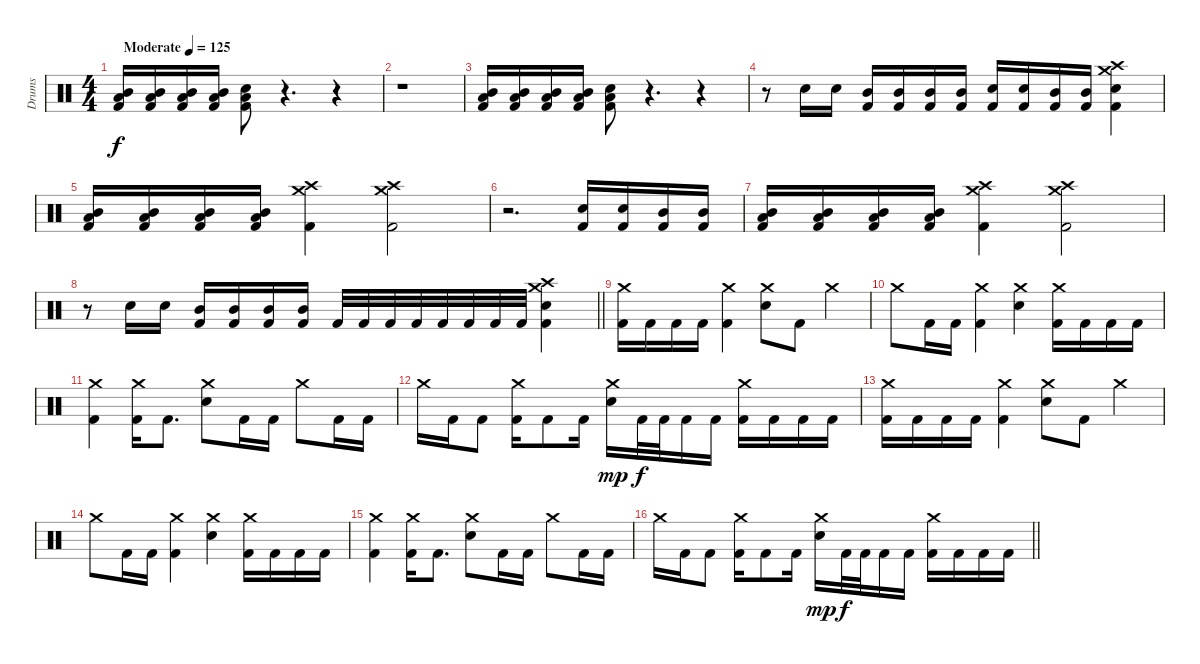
\track ("Drums" "Drums") {instrument percussion}
\staff {score}
\articulation defaults
\ts (4 4)
\section ("" "")
\tempo (125 "Moderate")
\clef neutral
\ks c
("Mid Tom (hit)" "Low Tom (hit)" "Kick (hit) 2").16{dy f} ("Mid Tom (hit)" "Low Tom (hit)" "Kick (hit) 2").16 ("Mid Tom (hit)" "Low Tom (hit)" "Kick (hit) 2").16 ("Mid Tom (hit)" "Low Tom (hit)" "Kick (hit) 2").16 ("Low Tom (hit)" "Snare (hit) 2" "Kick (hit) 2").8 r.4{d} r.4 |
r.1 |
("Mid Tom (hit)" "Low Tom (hit)" "Kick (hit) 2").16 ("Mid Tom (hit)" "Low Tom (hit)" "Kick (hit) 2").16 ("Mid Tom (hit)" "Low Tom (hit)" "Kick (hit) 2").16 ("Mid Tom (hit)" "Low Tom (hit)" "Kick (hit) 2").16 ("Low Tom (hit)" "Snare (hit) 2" "Kick (hit) 2").8 r.4{d} r.4 |
r.8 "Snare (hit) 2".16 "Snare (hit) 2".16 ("Mid Tom (hit)" "Kick (hit) 2").16 ("Mid Tom (hit)" "Kick (hit) 2").16 ("Mid Tom (hit)" "Kick (hit) 2").16 ("Mid Tom (hit)" "Kick (hit) 2").16 ("Snare (hit) 2" "Kick (hit) 2").16 ("Snare (hit) 2" "Kick (hit) 2").16 ("Mid Tom (hit)" "Kick (hit) 2").16 ("Mid Tom (hit)" "Kick (hit) 2").16 ("Crash medium (hit)" "Crash high (hit)" "Snare (hit) 2" "Kick (hit) 2").4 |
("Mid Tom (hit)" "Low Tom (hit)" "Kick (hit) 2").16 ("Mid Tom (hit)" "Low Tom (hit)" "Kick (hit) 2").16 ("Mid Tom (hit)" "Low Tom (hit)" "Kick (hit) 2").16 ("Mid Tom (hit)" "Low Tom (hit)" "Kick (hit) 2").16 ("Crash medium (hit)" "Crash high (hit)" "Kick (hit) 2").4 ("Crash medium (hit)" "Crash high (hit)" "Kick (hit) 2").2 |
r.2{d} ("Snare (hit) 2" "Kick (hit) 2").16 ("Snare (hit) 2" "Kick (hit) 2").16 ("Mid Tom (hit)" "Kick (hit) 2").16 ("Mid Tom (hit)" "Kick (hit) 2").16 |
("Mid Tom (hit)" "Low Tom (hit)" "Kick (hit) 2").16 ("Mid Tom (hit)" "Low Tom (hit)" "Kick (hit) 2").16 ("Mid Tom (hit)" "Low Tom (hit)" "Kick (hit) 2").16 ("Mid Tom (hit)" "Low Tom (hit)" "Kick (hit) 2").16 ("Crash medium (hit)" "Crash high (hit)" "Kick (hit) 2").4 ("Crash medium (hit)" "Crash high (hit)" "Kick (hit) 2").2 |
\barLineRight lightlight
r.8 "Snare (hit) 2".16 "Snare (hit) 2".16 ("Mid Tom (hit)" "Kick (hit) 2").16 ("Mid Tom (hit)" "Kick (hit) 2").16 ("Mid Tom (hit)" "Kick (hit) 2").16 ("Mid Tom (hit)" "Kick (hit) 2").16 "Kick (hit) 2".32 "Kick (hit) 2".32 "Kick (hit) 2".32 "Kick (hit) 2".32 "Kick (hit) 2".32 "Kick (hit) 2".32 "Kick (hit) 2".32 "Kick (hit) 2".32 ("Crash medium (hit)" "Crash high (hit)" "Snare (hit) 2" "Kick (hit) 2").4 |
\section ("" "")
("Crash medium (hit)" "Kick (hit) 2").16 "Kick (hit) 2".16 "Kick (hit) 2".16 "Kick (hit) 2".16 ("Crash medium (hit)" "Kick (hit) 2").4 ("Crash medium (hit)" "Snare (hit) 2").8 "Kick (hit) 2".8 "Crash medium (hit)".4 |
"Crash medium (hit)".8 "Kick (hit) 2".16 "Kick (hit) 2".16 ("Crash medium (hit)" "Kick (hit) 2").4 ("Crash medium (hit)" "Snare (hit) 2").4 ("Crash medium (hit)" "Kick (hit) 2").16 "Kick (hit) 2".16 "Kick (hit) 2".16 "Kick (hit) 2".16 |
("Crash medium (hit)" "Kick (hit) 2").4 ("Crash medium (hit)" "Kick (hit) 2").16 "Kick (hit) 2".8{d} ("Crash medium (hit)" "Snare (hit) 2").8 "Kick (hit) 2".16 "Kick (hit) 2".16 "Crash medium (hit)".8 "Kick (hit) 2".16 "Kick (hit) 2".16 |
"Crash medium (hit)".16 "Kick (hit) 2".16 "Kick (hit) 2".8 ("Crash medium (hit)" "Kick (hit) 2").16 "Kick (hit) 2".8 "Kick (hit) 2".16 ("Crash medium (hit)" "Snare (hit) 2").16{dy mp} "Kick (hit) 2".32{dy f} "Kick (hit) 2".32 "Kick (hit) 2".16 "Kick (hit) 2".16 ("Crash medium (hit)" "Kick (hit) 2").16 "Kick (hit) 2".16 "Kick (hit) 2".16 "Kick (hit) 2".16 |
("Crash medium (hit)" "Kick (hit) 2").16 "Kick (hit) 2".16 "Kick (hit) 2".16 "Kick (hit) 2".16 ("Crash medium (hit)" "Kick (hit) 2").4 ("Crash medium (hit)" "Snare (hit) 2").8 "Kick (hit) 2".8 "Crash medium (hit)".4 |
"Crash medium (hit)".8 "Kick (hit) 2".16 "Kick (hit) 2".16 ("Crash medium (hit)" "Kick (hit) 2").4 ("Crash medium (hit)" "Snare (hit) 2").4 ("Crash medium (hit)" "Kick (hit) 2").16 "Kick (hit) 2".16 "Kick (hit) 2".16 "Kick (hit) 2".16 |
("Crash medium (hit)" "Kick (hit) 2").4 ("Crash medium (hit)" "Kick (hit) 2").16 "Kick (hit) 2".8{d} ("Crash medium (hit)" "Snare (hit) 2").8 "Kick (hit) 2".16 "Kick (hit) 2".16 "Crash medium (hit)".8 "Kick (hit) 2".16 "Kick (hit) 2".16 |
\barLineRight lightlight "Crash medium (hit)".16 "Kick (hit) 2".16 "Kick (hit) 2".8
("Crash medium (hit)" "Kick (hit) 2").16 "Kick (hit) 2".8 "Kick (hit) 2".16 ("Crash medium (hit)" "Snare (hit) 2").16{dy mp} "Kick (hit) 2".32{dy f} "Kick (hit) 2".32 "Kick (hit) 2".16 "Kick (hit) 2".16 ("Crash medium (hit)" "Kick (hit) 2").16 "Kick (hit) 2".16 "Kick (hit) 2".16 "Kick (hit) 2".16
